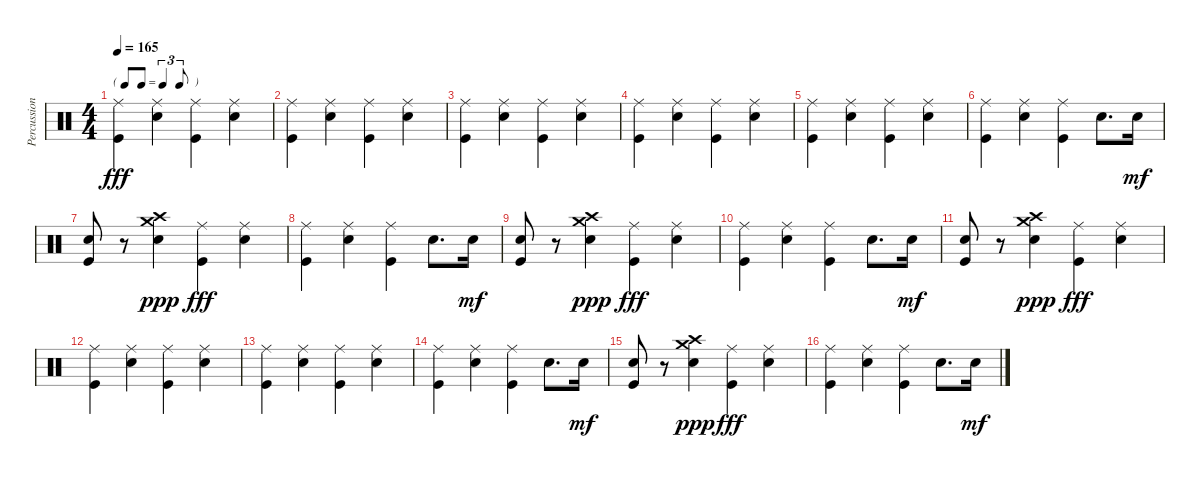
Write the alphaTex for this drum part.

\track ("Percussions" "Percussion") {instrument percussion}
\staff {score}
\articulation defaults
\ts (4 4)
\tf triplet8th
\tempo 165
\clef neutral
\ks c
("Kick (hit)" "Ride (middle)").4{dy fff} ("Electric Snare (hit)" "Ride (middle)").4 ("Kick (hit)" "Ride (middle)").4 ("Electric Snare (hit)" "Ride (middle)").4 |
("Kick (hit)" "Ride (middle)").4 ("Electric Snare (hit)" "Ride (middle)").4 ("Kick (hit)" "Ride (middle)").4 ("Electric Snare (hit)" "Ride (middle)").4 |
("Kick (hit)" "Ride (middle)").4 ("Electric Snare (hit)" "Ride (middle)").4 ("Kick (hit)" "Ride (middle)").4 ("Electric Snare (hit)" "Ride (middle)").4 |
("Kick (hit)" "Ride (middle)").4 ("Electric Snare (hit)" "Ride (middle)").4 ("Kick (hit)" "Ride (middle)").4 ("Electric Snare (hit)" "Ride (middle)").4 |
("Kick (hit)" "Ride (middle)").4 ("Electric Snare (hit)" "Ride (middle)").4 ("Kick (hit)" "Ride (middle)").4 ("Electric Snare (hit)" "Ride (middle)").4 |
("Kick (hit)" "Ride (middle)").4 ("Electric Snare (hit)" "Ride (middle)").4 ("Kick (hit)" "Ride (middle)").4 "Electric Snare (hit)".8{d} "Electric Snare (hit)".16{dy mf} |
("Kick (hit)" "Electric Snare (hit)").8 r.8 ("Crash medium (hit)" "Crash high (hit)" "Electric Snare (hit)").4{dy ppp} ("Kick (hit)" "Ride (middle)").4{dy fff} ("Electric Snare (hit)" "Ride (middle)").4 |
("Kick (hit)" "Ride (middle)").4 ("Electric Snare (hit)" "Ride (middle)").4 ("Kick (hit)" "Ride (middle)").4 "Electric Snare (hit)".8{d} "Electric Snare (hit)".16{dy mf} |
("Kick (hit)" "Electric Snare (hit)").8 r.8 ("Crash medium (hit)" "Crash high (hit)" "Electric Snare (hit)").4{dy ppp} ("Kick (hit)" "Ride (middle)").4{dy fff} ("Electric Snare (hit)" "Ride (middle)").4 |
("Kick (hit)" "Ride (middle)").4 ("Electric Snare (hit)" "Ride (middle)").4 ("Kick (hit)" "Ride (middle)").4 "Electric Snare (hit)".8{d} "Electric Snare (hit)".16{dy mf} |
("Kick (hit)" "Electric Snare (hit)").8 r.8 ("Crash medium (hit)" "Crash high (hit)" "Electric Snare (hit)").4{dy ppp} ("Kick (hit)" "Ride (middle)").4{dy fff} ("Electric Snare (hit)" "Ride (middle)").4 |
("Kick (hit)" "Ride (middle)").4 ("Electric Snare (hit)" "Ride (middle)").4 ("Kick (hit)" "Ride (middle)").4 ("Electric Snare (hit)" "Ride (middle)").4 |
("Kick (hit)" "Ride (middle)").4 ("Electric Snare (hit)" "Ride (middle)").4 ("Kick (hit)" "Ride (middle)").4 ("Electric Snare (hit)" "Ride (middle)").4 |
("Kick (hit)" "Ride (middle)").4 ("Electric Snare (hit)" "Ride (middle)").4 ("Kick (hit)" "Ride (middle)").4 "Electric Snare (hit)".8{d} "Electric Snare (hit)".16{dy mf} |
("Kick (hit)" "Electric Snare (hit)").8 r.8 ("Crash medium (hit)" "Crash high (hit)" "Electric Snare (hit)").4{dy ppp} ("Kick (hit)" "Ride (middle)").4{dy fff} ("Electric Snare (hit)" "Ride (middle)").4 |
("Kick (hit)" "Ride (middle)").4 ("Electric Snare (hit)" "Ride (middle)").4 ("Kick (hit)" "Ride (middle)").4 "Electric Snare (hit)".8{d} "Electric Snare (hit)".16{dy mf}
